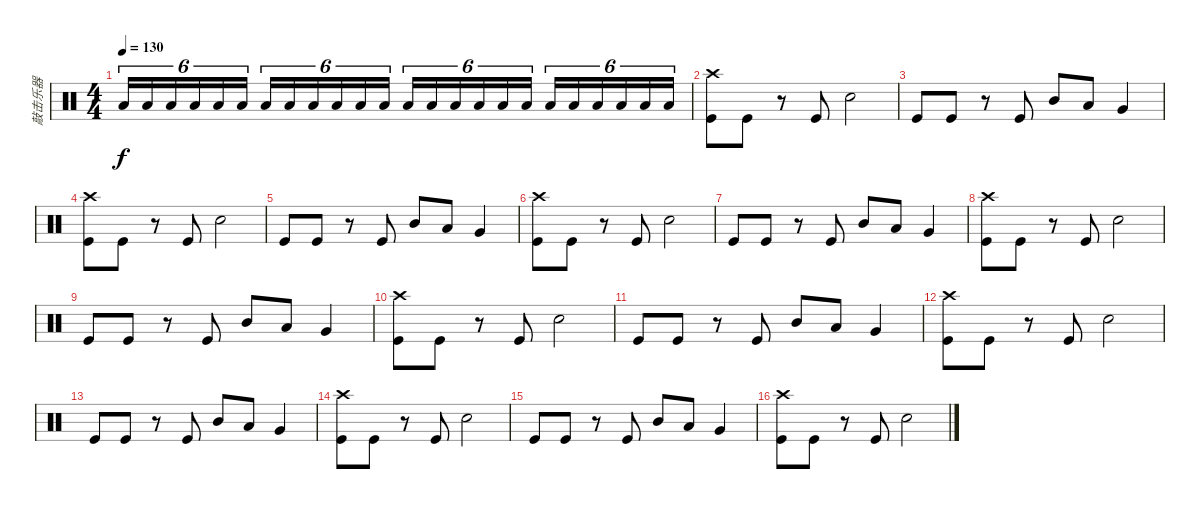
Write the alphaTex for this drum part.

\track ("敲击乐器" "敲击乐器") {instrument percussion}
\staff {score}
\articulation defaults
\ts (4 4)
\tempo 130
\clef neutral
\ks c "Low Tom (hit)".16{tu (6 4) dy f} "Low Tom (hit)".16{tu (6 4)} "Low Tom (hit)".16{tu (6 4)} "Low Tom (hit)".16{tu (6 4)} "Low Tom (hit)".16{tu (6 4)} "Low Tom (hit)".16{tu (6 4)} "Low Tom (hit)".16{tu (6 4)} "Low Tom (hit)".16{tu (6 4)} "Low Tom (hit)".16{tu (6 4)} "Low Tom (hit)".16{tu (6 4)} "Low Tom (hit)".16{tu (6 4)} "Low Tom (hit)".16{tu (6 4)} "Low Tom (hit)".16{tu (6 4)} "Low Tom (hit)".16{tu (6 4)} "Low Tom (hit)".16{tu (6 4)} "Low Tom (hit)".16{tu (6 4)} "Low Tom (hit)".16{tu (6 4)} "Low Tom (hit)".16{tu (6 4)} "Low Tom (hit)".16{tu (6 4)} "Low Tom (hit)".16{tu (6 4)} "Low Tom (hit)".16{tu (6 4)} "Low Tom (hit)".16{tu (6 4)} "Low Tom (hit)".16{tu (6 4)} "Low Tom (hit)".16{tu (6 4)}
|
("Crash high (hit)" "Kick (hit)").8 "Kick (hit)".8 r.8 "Kick (hit)".8 "Snare (hit) 2".2 |
"Kick (hit)".8 "Kick (hit)".8 r.8 "Kick (hit)".8 "Mid Tom (hit)".8 "Low Tom (hit)".8 "Very Low Tom (hit)".4 |
("Crash high (hit)" "Kick (hit)").8 "Kick (hit)".8 r.8 "Kick (hit)".8 "Snare (hit) 2".2 |
"Kick (hit)".8 "Kick (hit)".8 r.8 "Kick (hit)".8 "Mid Tom (hit)".8 "Low Tom (hit)".8 "Very Low Tom (hit)".4 |
("Crash high (hit)" "Kick (hit)").8 "Kick (hit)".8 r.8 "Kick (hit)".8 "Snare (hit) 2".2 |
"Kick (hit)".8 "Kick (hit)".8 r.8 "Kick (hit)".8 "Mid Tom (hit)".8 "Low Tom (hit)".8 "Very Low Tom (hit)".4 |
("Crash high (hit)" "Kick (hit)").8 "Kick (hit)".8 r.8 "Kick (hit)".8 "Snare (hit) 2".2 |
"Kick (hit)".8 "Kick (hit)".8 r.8 "Kick (hit)".8 "Mid Tom (hit)".8 "Low Tom (hit)".8 "Very Low Tom (hit)".4 |
("Crash high (hit)" "Kick (hit)").8 "Kick (hit)".8 r.8 "Kick (hit)".8 "Snare (hit) 2".2 |
"Kick (hit)".8 "Kick (hit)".8 r.8 "Kick (hit)".8 "Mid Tom (hit)".8 "Low Tom (hit)".8 "Very Low Tom (hit)".4 |
("Crash high (hit)" "Kick (hit)").8 "Kick (hit)".8 r.8 "Kick (hit)".8 "Snare (hit) 2".2 |
"Kick (hit)".8 "Kick (hit)".8 r.8 "Kick (hit)".8 "Mid Tom (hit)".8 "Low Tom (hit)".8 "Very Low Tom (hit)".4 |
("Crash high (hit)" "Kick (hit)").8 "Kick (hit)".8 r.8 "Kick (hit)".8 "Snare (hit) 2".2 |
"Kick (hit)".8 "Kick (hit)".8 r.8 "Kick (hit)".8 "Mid Tom (hit)".8 "Low Tom (hit)".8 "Very Low Tom (hit)".4 |
("Crash high (hit)" "Kick (hit)").8 "Kick (hit)".8 r.8 "Kick (hit)".8 "Snare (hit) 2".2
